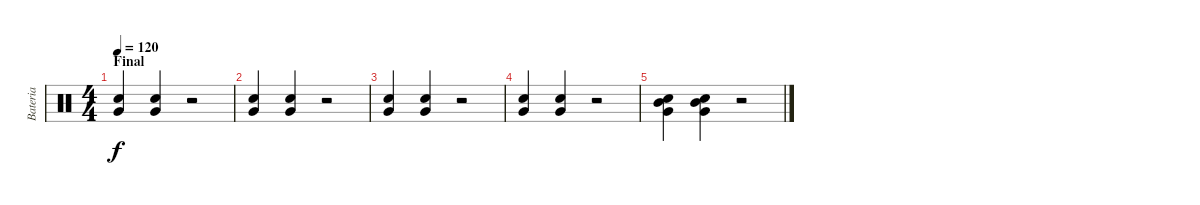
\track ("Bateria" "Bateria") {instrument percussion}
\staff {score}
\articulation defaults
\ts (4 4)
\section ("" "Final")
\tempo 120
\clef neutral
\ks c
("Snare (hit) 2" "Very Low Tom (hit)").4{dy f} ("Snare (hit) 2" "Very Low Tom (hit)").4 r.2 |
("Snare (hit) 2" "Very Low Tom (hit)").4 ("Snare (hit) 2" "Very Low Tom (hit)").4 r.2 |
("Snare (hit) 2" "Very Low Tom (hit)").4 ("Snare (hit) 2" "Very Low Tom (hit)").4 r.2 |
("Snare (hit) 2" "Very Low Tom (hit)").4 ("Snare (hit) 2" "Very Low Tom (hit)").4 r.2 |
("Snare (hit) 2" "Very Low Tom (hit)" "Mid Tom (hit)").4 ("Snare (hit) 2" "Very Low Tom (hit)" "Mid Tom (hit)").4 r.2
